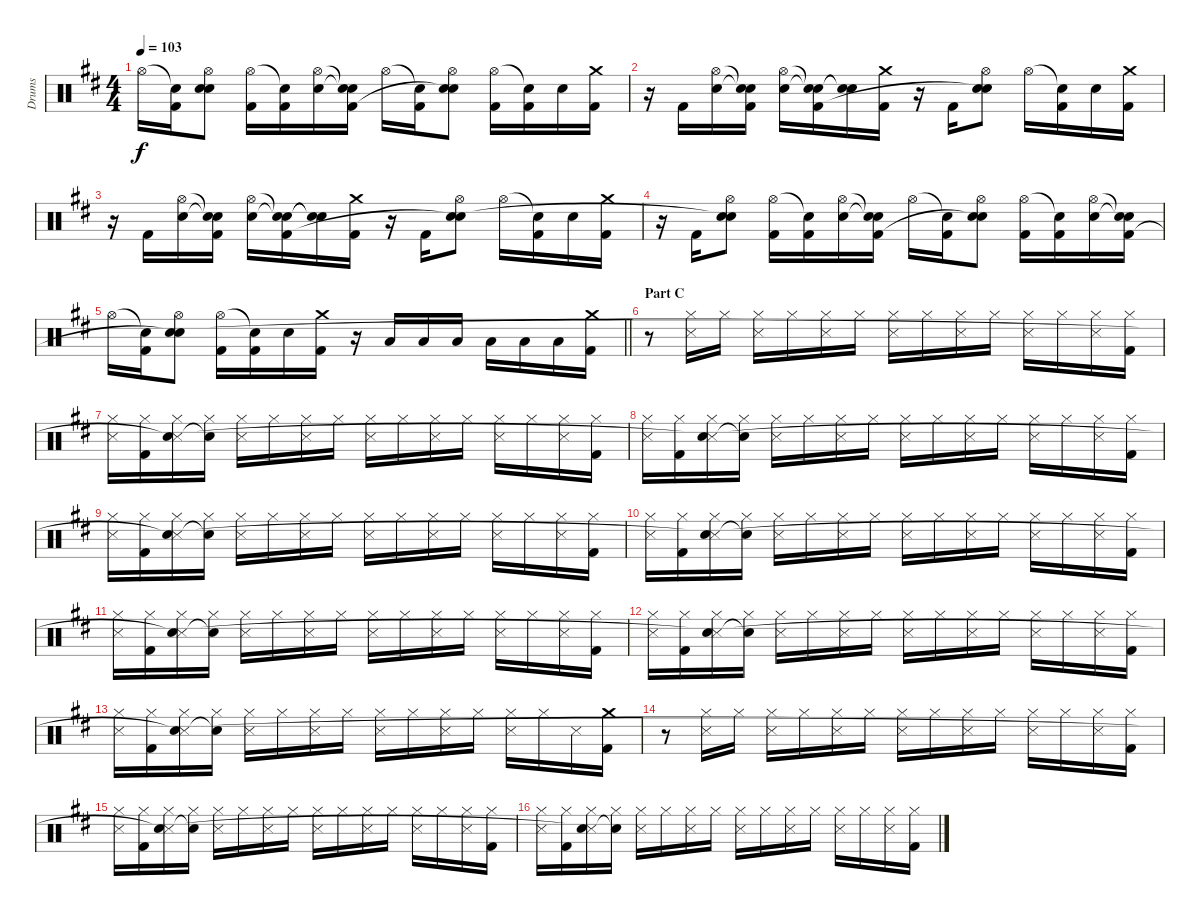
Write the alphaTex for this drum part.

\track ("Drums" "Drums") {instrument percussion}
\staff {score}
\articulation defaults
\ts (4 4)
\tempo 103
\clef neutral
\ks d "Hi-Hat (open)".16{dy f}
("Snare (hit)"{t} "Kick (hit) 2").16 ("Hi-Hat (open)" "Electric Snare (hit)" "Snare (hit)"{t}).8 ("Hi-Hat (open)" "Kick (hit) 2").16 ("Snare (hit)"{t} "Kick (hit) 2").16 ("Hi-Hat (open)" "Electric Snare (hit)").16 ("Snare (hit)"{t} "Snare (hit)"{t} "Kick (hit) 2").16 "Hi-Hat (open)".16 ("Snare (hit)"{t} "Kick (hit) 2").16 ("Hi-Hat (open)" "Electric Snare (hit)" "Snare (hit)"{t}).8 ("Hi-Hat (open)" "Kick (hit) 2").16 ("Snare (hit)"{t} "Kick (hit) 2").16 "Electric Snare (hit)".16 ("Crash medium (hit)" "Kick (hit) 2").16 |
r.16 "Kick (hit) 2".16 ("Hi-Hat (open)" "Electric Snare (hit)").16 ("Snare (hit)"{t} "Snare (hit)"{t} "Kick (hit) 2").16 ("Hi-Hat (open)" "Electric Snare (hit)").16 ("Snare (hit)"{t} "Snare (hit)"{t} "Kick (hit) 2").16 ("Snare (hit)"{t} "Snare (hit)"{t}).16 ("Crash medium (hit)" "Kick (hit) 2").16 r.16 "Kick (hit) 2".16 ("Hi-Hat (open)" "Electric Snare (hit)" "Snare (hit)"{t}).8 "Hi-Hat (open)".16 ("Snare (hit)"{t} "Kick (hit) 2").16 "Electric Snare (hit)".16 ("Crash medium (hit)" "Kick (hit) 2").16 |
r.16 "Kick (hit) 2".16 ("Hi-Hat (open)" "Electric Snare (hit)").16 ("Snare (hit)"{t} "Snare (hit)"{t} "Kick (hit) 2").16 ("Hi-Hat (open)" "Electric Snare (hit)").16 ("Snare (hit)"{t} "Snare (hit)"{t} "Kick (hit) 2").16 ("Snare (hit)"{t} "Snare (hit)"{t}).16 ("Crash medium (hit)" "Kick (hit) 2").16 r.16 "Kick (hit) 2".16 ("Hi-Hat (open)" "Electric Snare (hit)" "Snare (hit)"{t}).8 "Hi-Hat (open)".16 ("Snare (hit)"{t} "Kick (hit) 2").16 "Electric Snare (hit)".16 ("Crash medium (hit)" "Kick (hit) 2").16 |
r.16 "Kick (hit) 2".16 ("Hi-Hat (open)" "Electric Snare (hit)" "Snare (hit)"{t}).8 ("Hi-Hat (open)" "Kick (hit) 2").16 ("Snare (hit)"{t} "Kick (hit) 2").16 ("Hi-Hat (open)" "Electric Snare (hit)").16 ("Snare (hit)"{t} "Snare (hit)"{t} "Kick (hit) 2").16 "Hi-Hat (open)".16 ("Snare (hit)"{t} "Kick (hit) 2").16 ("Hi-Hat (open)" "Electric Snare (hit)" "Snare (hit)"{t}).8 ("Hi-Hat (open)" "Kick (hit) 2").16 ("Snare (hit)"{t} "Kick (hit) 2").16 ("Hi-Hat (open)" "Electric Snare (hit)").16 ("Snare (hit)"{t} "Snare (hit)"{t} "Kick (hit) 2").16 |
\barLineRight lightlight "Hi-Hat (open)".16
("Snare (hit)"{t} "Kick (hit) 2").16 ("Hi-Hat (open)" "Electric Snare (hit)" "Snare (hit)"{t}).8 ("Hi-Hat (open)" "Kick (hit) 2").16 ("Snare (hit)"{t} "Kick (hit) 2").16 "Electric Snare (hit)".16 ("Crash medium (hit)" "Kick (hit) 2").16 r.16 "Low Tom (hit)".16 "Low Tom (hit)".16 "Low Tom (hit)".16 "Low Tom (hit)".16 "Low Tom (hit)".16 "Low Tom (hit)".16 ("Crash medium (hit)" "Kick (hit) 2").16 |
\section ("" "Part C")
r.8 ("Hi-Hat (closed)" "Snare (side stick) 3").16 "Hi-Hat (closed)".16 ("Hi-Hat (closed)" "Snare (side stick) 3").16 "Hi-Hat (closed)".16 ("Hi-Hat (closed)" "Snare (side stick) 3").16 "Hi-Hat (closed)".16 ("Hi-Hat (closed)" "Snare (side stick) 3").16 "Hi-Hat (closed)".16 ("Hi-Hat (closed)" "Snare (side stick) 3").16 "Hi-Hat (closed)".16 ("Hi-Hat (closed)" "Snare (side stick) 3").16 "Hi-Hat (closed)".16 ("Hi-Hat (closed)" "Snare (side stick) 3").16 ("Hi-Hat (closed)" "Kick (hit) 2").16 |
("Hi-Hat (closed)" "Snare (side stick) 3").16 ("Hi-Hat (closed)" "Kick (hit) 2").16 ("Hi-Hat (closed)" "Snare (side stick) 3" "Snare (hit)"{t}).16 ("Hi-Hat (closed)" "Snare (hit)"{t}).16 ("Hi-Hat (closed)" "Snare (side stick) 3").16 "Hi-Hat (closed)".16 ("Hi-Hat (closed)" "Snare (side stick) 3").16 "Hi-Hat (closed)".16 ("Hi-Hat (closed)" "Snare (side stick) 3").16 "Hi-Hat (closed)".16 ("Hi-Hat (closed)" "Snare (side stick) 3").16 "Hi-Hat (closed)".16 ("Hi-Hat (closed)" "Snare (side stick) 3").16 "Hi-Hat (closed)".16 ("Hi-Hat (closed)" "Snare (side stick) 3").16 ("Hi-Hat (closed)" "Kick (hit) 2").16 |
("Hi-Hat (closed)" "Snare (side stick) 3").16 ("Hi-Hat (closed)" "Kick (hit) 2").16 ("Hi-Hat (closed)" "Snare (side stick) 3" "Snare (hit)"{t}).16 ("Hi-Hat (closed)" "Snare (hit)"{t}).16 ("Hi-Hat (closed)" "Snare (side stick) 3").16 "Hi-Hat (closed)".16 ("Hi-Hat (closed)" "Snare (side stick) 3").16 "Hi-Hat (closed)".16 ("Hi-Hat (closed)" "Snare (side stick) 3").16 "Hi-Hat (closed)".16 ("Hi-Hat (closed)" "Snare (side stick) 3").16 "Hi-Hat (closed)".16 ("Hi-Hat (closed)" "Snare (side stick) 3").16 "Hi-Hat (closed)".16 ("Hi-Hat (closed)" "Snare (side stick) 3").16 ("Hi-Hat (closed)" "Kick (hit) 2").16 |
("Hi-Hat (closed)" "Snare (side stick) 3").16 ("Hi-Hat (closed)" "Kick (hit) 2").16 ("Hi-Hat (closed)" "Snare (side stick) 3" "Snare (hit)"{t}).16 ("Hi-Hat (closed)" "Snare (hit)"{t}).16 ("Hi-Hat (closed)" "Snare (side stick) 3").16 "Hi-Hat (closed)".16 ("Hi-Hat (closed)" "Snare (side stick) 3").16 "Hi-Hat (closed)".16 ("Hi-Hat (closed)" "Snare (side stick) 3").16 "Hi-Hat (closed)".16 ("Hi-Hat (closed)" "Snare (side stick) 3").16 "Hi-Hat (closed)".16 ("Hi-Hat (closed)" "Snare (side stick) 3").16 "Hi-Hat (closed)".16 ("Hi-Hat (closed)" "Snare (side stick) 3").16 ("Hi-Hat (closed)" "Kick (hit) 2").16 |
("Hi-Hat (closed)" "Snare (side stick) 3").16 ("Hi-Hat (closed)" "Kick (hit) 2").16 ("Hi-Hat (closed)" "Snare (side stick) 3" "Snare (hit)"{t}).16 ("Hi-Hat (closed)" "Snare (hit)"{t}).16 ("Hi-Hat (closed)" "Snare (side stick) 3").16 "Hi-Hat (closed)".16 ("Hi-Hat (closed)" "Snare (side stick) 3").16 "Hi-Hat (closed)".16 ("Hi-Hat (closed)" "Snare (side stick) 3").16 "Hi-Hat (closed)".16 ("Hi-Hat (closed)" "Snare (side stick) 3").16 "Hi-Hat (closed)".16 ("Hi-Hat (closed)" "Snare (side stick) 3").16 "Hi-Hat (closed)".16 ("Hi-Hat (closed)" "Snare (side stick) 3").16 ("Hi-Hat (closed)" "Kick (hit) 2").16 |
("Hi-Hat (closed)" "Snare (side stick) 3").16 ("Hi-Hat (closed)" "Kick (hit) 2").16 ("Hi-Hat (closed)" "Snare (side stick) 3" "Snare (hit)"{t}).16 ("Hi-Hat (closed)" "Snare (hit)"{t}).16 ("Hi-Hat (closed)" "Snare (side stick) 3").16 "Hi-Hat (closed)".16 ("Hi-Hat (closed)" "Snare (side stick) 3").16 "Hi-Hat (closed)".16 ("Hi-Hat (closed)" "Snare (side stick) 3").16 "Hi-Hat (closed)".16 ("Hi-Hat (closed)" "Snare (side stick) 3").16 "Hi-Hat (closed)".16 ("Hi-Hat (closed)" "Snare (side stick) 3").16 "Hi-Hat (closed)".16 ("Hi-Hat (closed)" "Snare (side stick) 3").16 ("Hi-Hat (closed)" "Kick (hit) 2").16 |
("Hi-Hat (closed)" "Snare (side stick) 3").16 ("Hi-Hat (closed)" "Kick (hit) 2").16 ("Hi-Hat (closed)" "Snare (side stick) 3" "Snare (hit)"{t}).16 ("Hi-Hat (closed)" "Snare (hit)"{t}).16 ("Hi-Hat (closed)" "Snare (side stick) 3").16 "Hi-Hat (closed)".16 ("Hi-Hat (closed)" "Snare (side stick) 3").16 "Hi-Hat (closed)".16 ("Hi-Hat (closed)" "Snare (side stick) 3").16 "Hi-Hat (closed)".16 ("Hi-Hat (closed)" "Snare (side stick) 3").16 "Hi-Hat (closed)".16 ("Hi-Hat (closed)" "Snare (side stick) 3").16 "Hi-Hat (closed)".16 ("Hi-Hat (closed)" "Snare (side stick) 3").16 ("Hi-Hat (closed)" "Kick (hit) 2").16 |
("Hi-Hat (closed)" "Snare (side stick) 3").16 ("Hi-Hat (closed)" "Kick (hit) 2").16 ("Hi-Hat (closed)" "Snare (side stick) 3" "Snare (hit)"{t}).16 ("Hi-Hat (closed)" "Snare (hit)"{t}).16 ("Hi-Hat (closed)" "Snare (side stick) 3").16 "Hi-Hat (closed)".16 ("Hi-Hat (closed)" "Snare (side stick) 3").16 "Hi-Hat (closed)".16 ("Hi-Hat (closed)" "Snare (side stick) 3").16 "Hi-Hat (closed)".16 ("Hi-Hat (closed)" "Snare (side stick) 3").16 "Hi-Hat (closed)".16 ("Hi-Hat (closed)" "Snare (side stick) 3").16 "Hi-Hat (closed)".16 "Snare (side stick) 3".16 ("Crash medium (hit)" "Kick (hit) 2").16 |
r.8 ("Hi-Hat (closed)" "Snare (side stick) 3").16 "Hi-Hat (closed)".16 ("Hi-Hat (closed)" "Snare (side stick) 3").16 "Hi-Hat (closed)".16 ("Hi-Hat (closed)" "Snare (side stick) 3").16 "Hi-Hat (closed)".16 ("Hi-Hat (closed)" "Snare (side stick) 3").16 "Hi-Hat (closed)".16 ("Hi-Hat (closed)" "Snare (side stick) 3").16 "Hi-Hat (closed)".16 ("Hi-Hat (closed)" "Snare (side stick) 3").16 "Hi-Hat (closed)".16 ("Hi-Hat (closed)" "Snare (side stick) 3").16 ("Hi-Hat (closed)" "Kick (hit) 2").16 |
("Hi-Hat (closed)" "Snare (side stick) 3").16 ("Hi-Hat (closed)" "Kick (hit) 2").16 ("Hi-Hat (closed)" "Snare (side stick) 3" "Snare (hit)"{t}).16 ("Hi-Hat (closed)" "Snare (hit)"{t}).16 ("Hi-Hat (closed)" "Snare (side stick) 3").16 "Hi-Hat (closed)".16 ("Hi-Hat (closed)" "Snare (side stick) 3").16 "Hi-Hat (closed)".16 ("Hi-Hat (closed)" "Snare (side stick) 3").16 "Hi-Hat (closed)".16 ("Hi-Hat (closed)" "Snare (side stick) 3").16 "Hi-Hat (closed)".16 ("Hi-Hat (closed)" "Snare (side stick) 3").16 "Hi-Hat (closed)".16 ("Hi-Hat (closed)" "Snare (side stick) 3").16 ("Hi-Hat (closed)" "Kick (hit) 2").16 |
("Hi-Hat (closed)" "Snare (side stick) 3").16 ("Hi-Hat (closed)" "Kick (hit) 2").16 ("Hi-Hat (closed)" "Snare (side stick) 3" "Snare (hit)"{t}).16 ("Hi-Hat (closed)" "Snare (hit)"{t}).16 ("Hi-Hat (closed)" "Snare (side stick) 3").16 "Hi-Hat (closed)".16 ("Hi-Hat (closed)" "Snare (side stick) 3").16 "Hi-Hat (closed)".16 ("Hi-Hat (closed)" "Snare (side stick) 3").16 "Hi-Hat (closed)".16 ("Hi-Hat (closed)" "Snare (side stick) 3").16 "Hi-Hat (closed)".16 ("Hi-Hat (closed)" "Snare (side stick) 3").16 "Hi-Hat (closed)".16 ("Hi-Hat (closed)" "Snare (side stick) 3").16 ("Hi-Hat (closed)" "Kick (hit) 2").16
